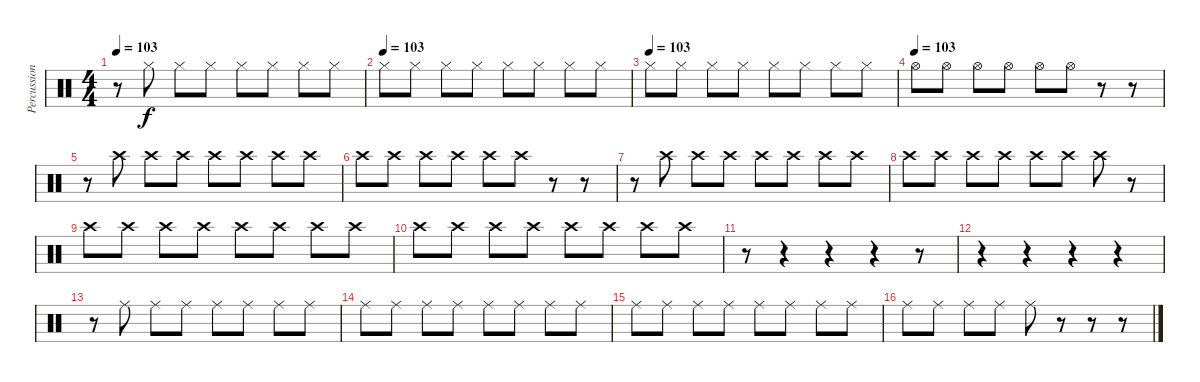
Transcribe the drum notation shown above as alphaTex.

\track ("Percussion2" "Percussion") {instrument percussion}
\staff {score}
\articulation defaults
\ts (4 4)
\tempo 103
\clef neutral
\ks c
r.8{dy f} "Hi-Hat (closed)".8 "Hi-Hat (closed)".8 "Hi-Hat (closed)".8 "Hi-Hat (closed)".8 "Hi-Hat (closed)".8 "Hi-Hat (closed)".8 "Hi-Hat (closed)".8 |
\tempo (103)
"Hi-Hat (closed)".8 "Hi-Hat (closed)".8 "Hi-Hat (closed)".8 "Hi-Hat (closed)".8 "Hi-Hat (closed)".8 "Hi-Hat (closed)".8 "Hi-Hat (closed)".8 "Hi-Hat (closed)".8 |
\tempo (103)
"Hi-Hat (closed)".8 "Hi-Hat (closed)".8 "Hi-Hat (closed)".8 "Hi-Hat (closed)".8 "Hi-Hat (closed)".8 "Hi-Hat (closed)".8 "Hi-Hat (closed)".8 "Hi-Hat (closed)".8 |
\tempo (103)
"Hi-Hat (open)".8 "Hi-Hat (open)".8 "Hi-Hat (open)".8 "Hi-Hat (open)".8 "Hi-Hat (open)".8 "Hi-Hat (open)".8 r.8 r.8 |
r.8 "Crash high (hit)".8 "Crash high (hit)".8 "Crash high (hit)".8 "Crash high (hit)".8 "Crash high (hit)".8 "Crash high (hit)".8 "Crash high (hit)".8 |
"Crash high (hit)".8 "Crash high (hit)".8 "Crash high (hit)".8 "Crash high (hit)".8 "Crash high (hit)".8 "Crash high (hit)".8 r.8 r.8 |
r.8 "Crash high (hit)".8 "Crash high (hit)".8 "Crash high (hit)".8 "Crash high (hit)".8 "Crash high (hit)".8 "Crash high (hit)".8 "Crash high (hit)".8 |
"Crash high (hit)".8 "Crash high (hit)".8 "Crash high (hit)".8 "Crash high (hit)".8 "Crash high (hit)".8 "Crash high (hit)".8 "Crash high (hit)".8 r.8 |
"Crash high (hit)".8 "Crash high (hit)".8 "Crash high (hit)".8 "Crash high (hit)".8 "Crash high (hit)".8 "Crash high (hit)".8 "Crash high (hit)".8 "Crash high (hit)".8 |
"Crash high (hit)".8 "Crash high (hit)".8 "Crash high (hit)".8 "Crash high (hit)".8 "Crash high (hit)".8 "Crash high (hit)".8 "Crash high (hit)".8 "Crash high (hit)".8 |
r.8 r.4 r.4 r.4 r.8 |
r.4 r.4 r.4 r.4 |
r.8 "Ride (middle)".8 "Ride (middle)".8 "Ride (middle)".8 "Ride (middle)".8 "Ride (middle)".8 "Ride (middle)".8 "Ride (middle)".8 |
"Ride (middle)".8 "Ride (middle)".8 "Ride (middle)".8 "Ride (middle)".8 "Ride (middle)".8 "Ride (middle)".8 "Ride (middle)".8 "Ride (middle)".8 |
"Ride (middle)".8 "Ride (middle)".8 "Ride (middle)".8 "Ride (middle)".8 "Ride (middle)".8 "Ride (middle)".8 "Ride (middle)".8 "Ride (middle)".8 |
"Ride (middle)".8 "Ride (middle)".8 "Ride (middle)".8 "Ride (middle)".8 "Ride (middle)".8 r.8 r.8 r.8
